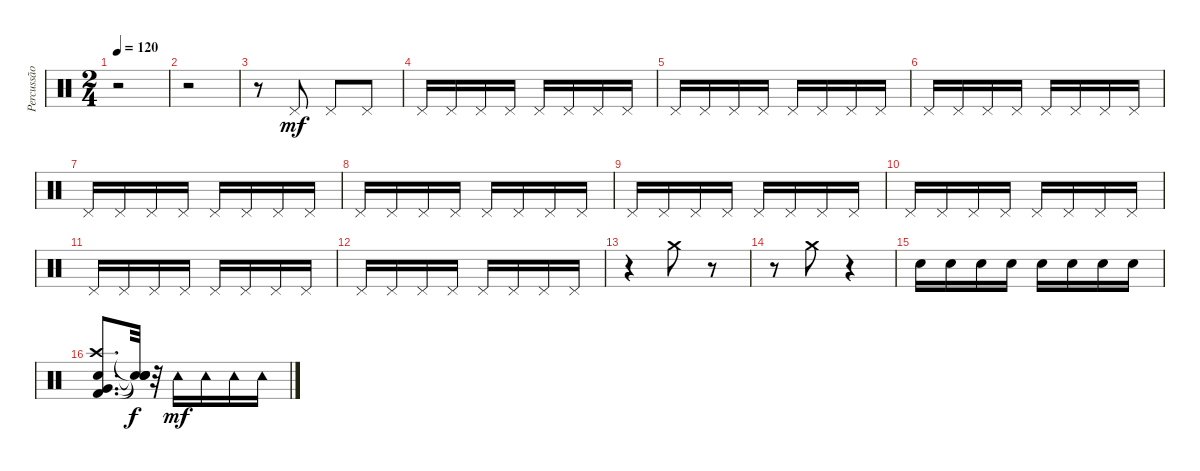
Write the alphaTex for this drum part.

\track ("Percussão" "Percussão") {instrument percussion}
\staff {score}
\articulation defaults
\ts (2 4)
\tempo 120
\clef neutral
\ks c
r.2{dy mf} |
r.2 |
r.8 "Pedal Hi-Hat (hit)".8 "Pedal Hi-Hat (hit)".8 "Pedal Hi-Hat (hit)".8 |
"Pedal Hi-Hat (hit)".16 "Pedal Hi-Hat (hit)".16 "Pedal Hi-Hat (hit)".16 "Pedal Hi-Hat (hit)".16 "Pedal Hi-Hat (hit)".16 "Pedal Hi-Hat (hit)".16 "Pedal Hi-Hat (hit)".16 "Pedal Hi-Hat (hit)".16 |
"Pedal Hi-Hat (hit)".16 "Pedal Hi-Hat (hit)".16 "Pedal Hi-Hat (hit)".16 "Pedal Hi-Hat (hit)".16 "Pedal Hi-Hat (hit)".16 "Pedal Hi-Hat (hit)".16 "Pedal Hi-Hat (hit)".16 "Pedal Hi-Hat (hit)".16 |
"Pedal Hi-Hat (hit)".16 "Pedal Hi-Hat (hit)".16 "Pedal Hi-Hat (hit)".16 "Pedal Hi-Hat (hit)".16 "Pedal Hi-Hat (hit)".16 "Pedal Hi-Hat (hit)".16 "Pedal Hi-Hat (hit)".16 "Pedal Hi-Hat (hit)".16 |
"Pedal Hi-Hat (hit)".16 "Pedal Hi-Hat (hit)".16 "Pedal Hi-Hat (hit)".16 "Pedal Hi-Hat (hit)".16 "Pedal Hi-Hat (hit)".16 "Pedal Hi-Hat (hit)".16 "Pedal Hi-Hat (hit)".16 "Pedal Hi-Hat (hit)".16 |
"Pedal Hi-Hat (hit)".16 "Pedal Hi-Hat (hit)".16 "Pedal Hi-Hat (hit)".16 "Pedal Hi-Hat (hit)".16 "Pedal Hi-Hat (hit)".16 "Pedal Hi-Hat (hit)".16 "Pedal Hi-Hat (hit)".16 "Pedal Hi-Hat (hit)".16 |
"Pedal Hi-Hat (hit)".16 "Pedal Hi-Hat (hit)".16 "Pedal Hi-Hat (hit)".16 "Pedal Hi-Hat (hit)".16 "Pedal Hi-Hat (hit)".16 "Pedal Hi-Hat (hit)".16 "Pedal Hi-Hat (hit)".16 "Pedal Hi-Hat (hit)".16 |
"Pedal Hi-Hat (hit)".16 "Pedal Hi-Hat (hit)".16 "Pedal Hi-Hat (hit)".16 "Pedal Hi-Hat (hit)".16 "Pedal Hi-Hat (hit)".16 "Pedal Hi-Hat (hit)".16 "Pedal Hi-Hat (hit)".16 "Pedal Hi-Hat (hit)".16 |
"Pedal Hi-Hat (hit)".16 "Pedal Hi-Hat (hit)".16 "Pedal Hi-Hat (hit)".16 "Pedal Hi-Hat (hit)".16 "Pedal Hi-Hat (hit)".16 "Pedal Hi-Hat (hit)".16 "Pedal Hi-Hat (hit)".16 "Pedal Hi-Hat (hit)".16 |
"Pedal Hi-Hat (hit)".16 "Pedal Hi-Hat (hit)".16 "Pedal Hi-Hat (hit)".16 "Pedal Hi-Hat (hit)".16 "Pedal Hi-Hat (hit)".16 "Pedal Hi-Hat (hit)".16 "Pedal Hi-Hat (hit)".16 "Pedal Hi-Hat (hit)".16 |
r.4 "Crash medium (hit)".8 r.8 |
r.8 "Crash medium (hit)".8 r.4 |
"Snare (hit) 2".16 "Snare (hit) 2".16 "Snare (hit) 2".16 "Snare (hit) 2".16 "Snare (hit) 2".16 "Snare (hit) 2".16 "Snare (hit) 2".16 "Snare (hit) 2".16 |
("Crash high (hit)" "Very Low Tom (hit)" "Snare (hit) 2" "Kick (hit) 2").8{d} ("Snare (hit)"{t} "Snare (hit)"{t} "Snare (hit)"{t} "Snare (hit)"{t}).32{dy f} r.32 "Tambourine (hit)".16{dy mf} "Tambourine (hit)".16 "Tambourine (hit)".16 "Tambourine (hit)".16
